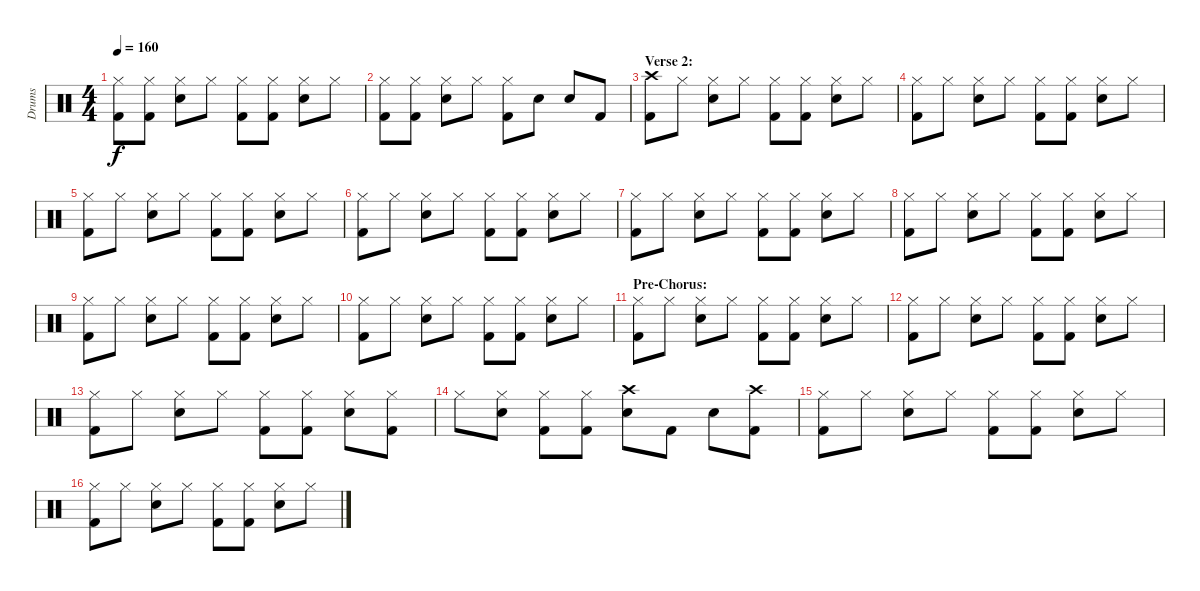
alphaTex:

\track ("Drums" "Drums") {instrument percussion}
\staff {score}
\articulation defaults
\ts (4 4)
\tempo 160
\clef neutral
\ks c
("Hi-Hat (closed)" "Kick (hit) 2").8{dy f} ("Hi-Hat (closed)" "Kick (hit) 2").8 ("Hi-Hat (closed)" "Electric Snare (hit)").8 "Hi-Hat (closed)".8 ("Hi-Hat (closed)" "Kick (hit) 2").8 ("Hi-Hat (closed)" "Kick (hit) 2").8 ("Hi-Hat (closed)" "Electric Snare (hit)").8 "Hi-Hat (closed)".8 |
("Hi-Hat (closed)" "Kick (hit) 2").8 ("Hi-Hat (closed)" "Kick (hit) 2").8 ("Hi-Hat (closed)" "Electric Snare (hit)").8 "Hi-Hat (closed)".8 ("Hi-Hat (closed)" "Kick (hit) 2").8 "Electric Snare (hit)".8 "Electric Snare (hit)".8 "Kick (hit) 2".8 |
\section ("" "Verse 2:")
("Crash high (hit)" "Kick (hit) 2").8 "Hi-Hat (closed)".8 ("Hi-Hat (closed)" "Electric Snare (hit)").8 "Hi-Hat (closed)".8 ("Hi-Hat (closed)" "Kick (hit) 2").8 ("Hi-Hat (closed)" "Kick (hit) 2").8 ("Hi-Hat (closed)" "Electric Snare (hit)").8 "Hi-Hat (closed)".8 |
("Hi-Hat (closed)" "Kick (hit) 2").8 "Hi-Hat (closed)".8 ("Hi-Hat (closed)" "Electric Snare (hit)").8 "Hi-Hat (closed)".8 ("Hi-Hat (closed)" "Kick (hit) 2").8 ("Hi-Hat (closed)" "Kick (hit) 2").8 ("Hi-Hat (closed)" "Electric Snare (hit)").8 "Hi-Hat (closed)".8 |
("Hi-Hat (closed)" "Kick (hit) 2").8 "Hi-Hat (closed)".8 ("Hi-Hat (closed)" "Electric Snare (hit)").8 "Hi-Hat (closed)".8 ("Hi-Hat (closed)" "Kick (hit) 2").8 ("Hi-Hat (closed)" "Kick (hit) 2").8 ("Hi-Hat (closed)" "Electric Snare (hit)").8 "Hi-Hat (closed)".8 |
("Hi-Hat (closed)" "Kick (hit) 2").8 "Hi-Hat (closed)".8 ("Hi-Hat (closed)" "Electric Snare (hit)").8 "Hi-Hat (closed)".8 ("Hi-Hat (closed)" "Kick (hit) 2").8 ("Hi-Hat (closed)" "Kick (hit) 2").8 ("Hi-Hat (closed)" "Electric Snare (hit)").8 "Hi-Hat (closed)".8 |
("Hi-Hat (closed)" "Kick (hit) 2").8 "Hi-Hat (closed)".8 ("Hi-Hat (closed)" "Electric Snare (hit)").8 "Hi-Hat (closed)".8 ("Hi-Hat (closed)" "Kick (hit) 2").8 ("Hi-Hat (closed)" "Kick (hit) 2").8 ("Hi-Hat (closed)" "Electric Snare (hit)").8 "Hi-Hat (closed)".8 |
("Hi-Hat (closed)" "Kick (hit) 2").8 "Hi-Hat (closed)".8 ("Hi-Hat (closed)" "Electric Snare (hit)").8 "Hi-Hat (closed)".8 ("Hi-Hat (closed)" "Kick (hit) 2").8 ("Hi-Hat (closed)" "Kick (hit) 2").8 ("Hi-Hat (closed)" "Electric Snare (hit)").8 "Hi-Hat (closed)".8 |
("Hi-Hat (closed)" "Kick (hit) 2").8 "Hi-Hat (closed)".8 ("Hi-Hat (closed)" "Electric Snare (hit)").8 "Hi-Hat (closed)".8 ("Hi-Hat (closed)" "Kick (hit) 2").8 ("Hi-Hat (closed)" "Kick (hit) 2").8 ("Hi-Hat (closed)" "Electric Snare (hit)").8 "Hi-Hat (closed)".8 |
("Hi-Hat (closed)" "Kick (hit) 2").8 "Hi-Hat (closed)".8 ("Hi-Hat (closed)" "Electric Snare (hit)").8 "Hi-Hat (closed)".8 ("Hi-Hat (closed)" "Kick (hit) 2").8 ("Hi-Hat (closed)" "Kick (hit) 2").8 ("Hi-Hat (closed)" "Electric Snare (hit)").8 "Hi-Hat (closed)".8 |
\section ("" "Pre-Chorus:")
("Hi-Hat (closed)" "Kick (hit) 2").8 "Hi-Hat (closed)".8 ("Hi-Hat (closed)" "Electric Snare (hit)").8 "Hi-Hat (closed)".8 ("Hi-Hat (closed)" "Kick (hit) 2").8 ("Hi-Hat (closed)" "Kick (hit) 2").8 ("Hi-Hat (closed)" "Electric Snare (hit)").8 "Hi-Hat (closed)".8 |
("Hi-Hat (closed)" "Kick (hit) 2").8 "Hi-Hat (closed)".8 ("Hi-Hat (closed)" "Electric Snare (hit)").8 "Hi-Hat (closed)".8 ("Hi-Hat (closed)" "Kick (hit) 2").8 ("Hi-Hat (closed)" "Kick (hit) 2").8 ("Hi-Hat (closed)" "Electric Snare (hit)").8 "Hi-Hat (closed)".8 |
("Hi-Hat (closed)" "Kick (hit) 2").8 "Hi-Hat (closed)".8 ("Hi-Hat (closed)" "Electric Snare (hit)").8 "Hi-Hat (closed)".8 ("Hi-Hat (closed)" "Kick (hit) 2").8 ("Hi-Hat (closed)" "Kick (hit) 2").8 ("Hi-Hat (closed)" "Electric Snare (hit)").8 ("Hi-Hat (closed)" "Kick (hit) 2").8 |
"Hi-Hat (closed)".8 ("Hi-Hat (closed)" "Electric Snare (hit)").8 ("Hi-Hat (closed)" "Kick (hit) 2").8 ("Hi-Hat (closed)" "Kick (hit) 2").8 ("Crash high (hit)" "Electric Snare (hit)").8 "Kick (hit) 2".8 "Electric Snare (hit)".8 ("Crash high (hit)" "Kick (hit) 2").8 |
("Hi-Hat (closed)" "Kick (hit) 2").8 "Hi-Hat (closed)".8 ("Hi-Hat (closed)" "Electric Snare (hit)").8 "Hi-Hat (closed)".8 ("Hi-Hat (closed)" "Kick (hit) 2").8 ("Hi-Hat (closed)" "Kick (hit) 2").8 ("Hi-Hat (closed)" "Electric Snare (hit)").8 "Hi-Hat (closed)".8 |
("Hi-Hat (closed)" "Kick (hit) 2").8 "Hi-Hat (closed)".8 ("Hi-Hat (closed)" "Electric Snare (hit)").8 "Hi-Hat (closed)".8 ("Hi-Hat (closed)" "Kick (hit) 2").8 ("Hi-Hat (closed)" "Kick (hit) 2").8 ("Hi-Hat (closed)" "Electric Snare (hit)").8 "Hi-Hat (closed)".8
